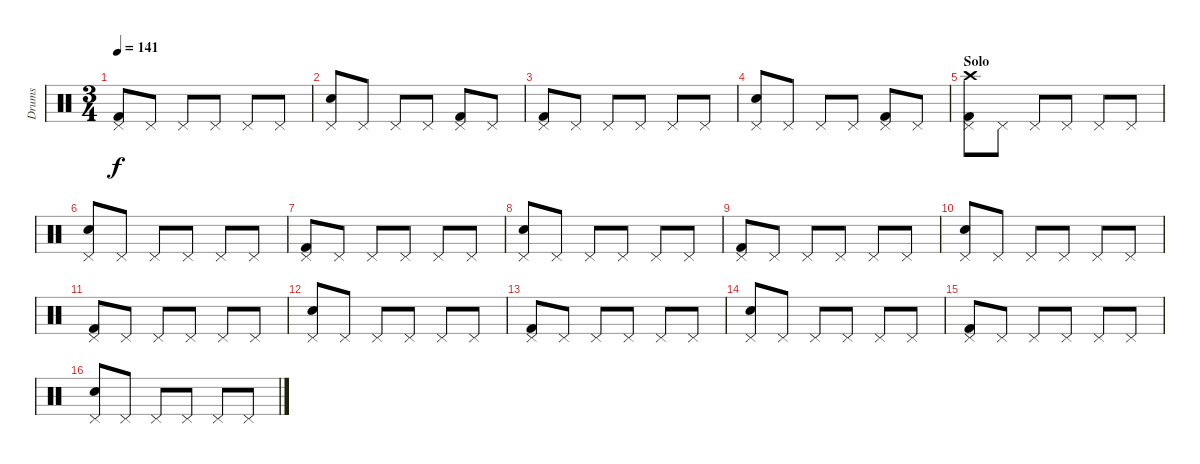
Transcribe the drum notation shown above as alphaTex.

\track ("Drums" "Drums") {instrument percussion}
\staff {score}
\articulation defaults
\ts (3 4)
\tempo 141
\clef neutral
\ks c
("Pedal Hi-Hat (hit)" "Kick (hit) 2").8{dy f} "Pedal Hi-Hat (hit)".8 "Pedal Hi-Hat (hit)".8 "Pedal Hi-Hat (hit)".8 "Pedal Hi-Hat (hit)".8 "Pedal Hi-Hat (hit)".8 |
("Pedal Hi-Hat (hit)" "Electric Snare (hit)").8 "Pedal Hi-Hat (hit)".8 "Pedal Hi-Hat (hit)".8 "Pedal Hi-Hat (hit)".8 ("Pedal Hi-Hat (hit)" "Kick (hit) 2").8 "Pedal Hi-Hat (hit)".8 |
("Pedal Hi-Hat (hit)" "Kick (hit) 2").8 "Pedal Hi-Hat (hit)".8 "Pedal Hi-Hat (hit)".8 "Pedal Hi-Hat (hit)".8 "Pedal Hi-Hat (hit)".8 "Pedal Hi-Hat (hit)".8 |
("Pedal Hi-Hat (hit)" "Electric Snare (hit)").8 "Pedal Hi-Hat (hit)".8 "Pedal Hi-Hat (hit)".8 "Pedal Hi-Hat (hit)".8 ("Pedal Hi-Hat (hit)" "Kick (hit) 2").8 "Pedal Hi-Hat (hit)".8 |
\section ("" "Solo")
("Pedal Hi-Hat (hit)" "Crash high (hit)" "Kick (hit) 2").8 "Pedal Hi-Hat (hit)".8 "Pedal Hi-Hat (hit)".8 "Pedal Hi-Hat (hit)".8 "Pedal Hi-Hat (hit)".8 "Pedal Hi-Hat (hit)".8 |
("Pedal Hi-Hat (hit)" "Electric Snare (hit)").8 "Pedal Hi-Hat (hit)".8 "Pedal Hi-Hat (hit)".8 "Pedal Hi-Hat (hit)".8 "Pedal Hi-Hat (hit)".8 "Pedal Hi-Hat (hit)".8 |
("Pedal Hi-Hat (hit)" "Kick (hit) 2").8 "Pedal Hi-Hat (hit)".8 "Pedal Hi-Hat (hit)".8 "Pedal Hi-Hat (hit)".8 "Pedal Hi-Hat (hit)".8 "Pedal Hi-Hat (hit)".8 |
("Pedal Hi-Hat (hit)" "Electric Snare (hit)").8 "Pedal Hi-Hat (hit)".8 "Pedal Hi-Hat (hit)".8 "Pedal Hi-Hat (hit)".8 "Pedal Hi-Hat (hit)".8 "Pedal Hi-Hat (hit)".8 |
("Pedal Hi-Hat (hit)" "Kick (hit) 2").8 "Pedal Hi-Hat (hit)".8 "Pedal Hi-Hat (hit)".8 "Pedal Hi-Hat (hit)".8 "Pedal Hi-Hat (hit)".8 "Pedal Hi-Hat (hit)".8 |
("Pedal Hi-Hat (hit)" "Electric Snare (hit)").8 "Pedal Hi-Hat (hit)".8 "Pedal Hi-Hat (hit)".8 "Pedal Hi-Hat (hit)".8 "Pedal Hi-Hat (hit)".8 "Pedal Hi-Hat (hit)".8 |
("Pedal Hi-Hat (hit)" "Kick (hit) 2").8 "Pedal Hi-Hat (hit)".8 "Pedal Hi-Hat (hit)".8 "Pedal Hi-Hat (hit)".8 "Pedal Hi-Hat (hit)".8 "Pedal Hi-Hat (hit)".8 |
("Pedal Hi-Hat (hit)" "Electric Snare (hit)").8 "Pedal Hi-Hat (hit)".8 "Pedal Hi-Hat (hit)".8 "Pedal Hi-Hat (hit)".8 "Pedal Hi-Hat (hit)".8 "Pedal Hi-Hat (hit)".8 |
("Pedal Hi-Hat (hit)" "Kick (hit) 2").8 "Pedal Hi-Hat (hit)".8 "Pedal Hi-Hat (hit)".8 "Pedal Hi-Hat (hit)".8 "Pedal Hi-Hat (hit)".8 "Pedal Hi-Hat (hit)".8 |
("Pedal Hi-Hat (hit)" "Electric Snare (hit)").8 "Pedal Hi-Hat (hit)".8 "Pedal Hi-Hat (hit)".8 "Pedal Hi-Hat (hit)".8 "Pedal Hi-Hat (hit)".8 "Pedal Hi-Hat (hit)".8 |
("Pedal Hi-Hat (hit)" "Kick (hit) 2").8 "Pedal Hi-Hat (hit)".8 "Pedal Hi-Hat (hit)".8 "Pedal Hi-Hat (hit)".8 "Pedal Hi-Hat (hit)".8 "Pedal Hi-Hat (hit)".8 |
("Pedal Hi-Hat (hit)" "Electric Snare (hit)").8 "Pedal Hi-Hat (hit)".8 "Pedal Hi-Hat (hit)".8 "Pedal Hi-Hat (hit)".8 "Pedal Hi-Hat (hit)".8 "Pedal Hi-Hat (hit)".8
